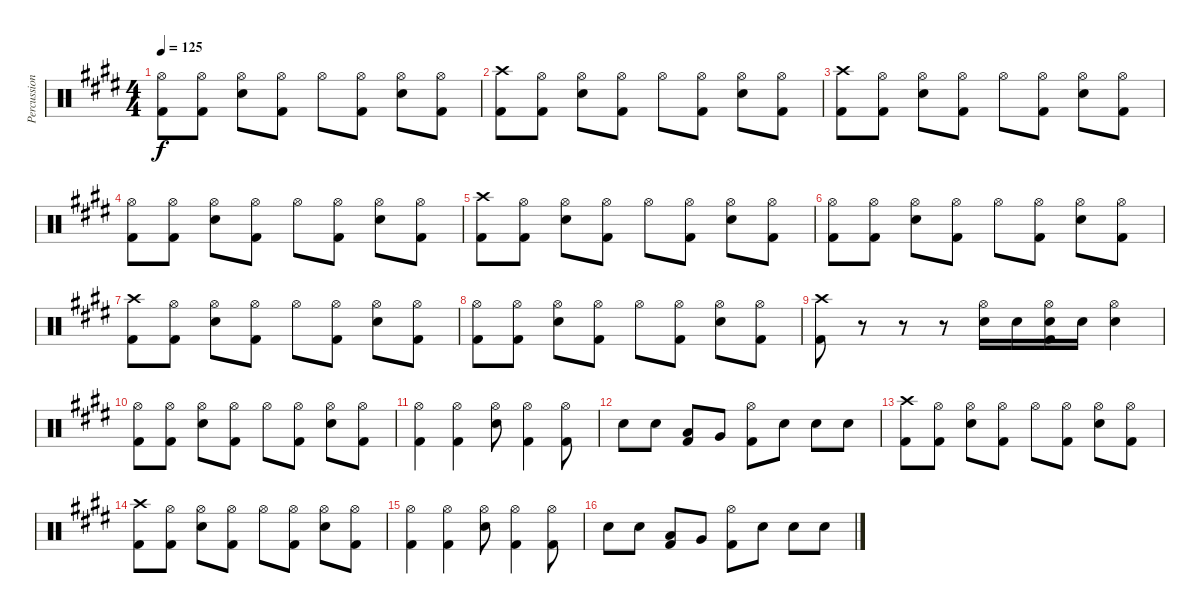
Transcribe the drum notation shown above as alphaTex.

\track ("Percussion" "Percussion") {instrument percussion}
\staff {score}
\articulation defaults
\ts (4 4)
\tempo 125
\clef neutral
\ks e
("Hi-Hat (open)" "Kick (hit) 2").8{dy f} ("Hi-Hat (open)" "Kick (hit) 2").8 ("Hi-Hat (open)" "Electric Snare (hit)").8 ("Hi-Hat (open)" "Kick (hit) 2").8 "Hi-Hat (open)".8 ("Hi-Hat (open)" "Kick (hit) 2").8 ("Hi-Hat (open)" "Electric Snare (hit)").8 ("Hi-Hat (open)" "Kick (hit) 2").8 |
("Crash high (hit)" "Kick (hit) 2").8 ("Hi-Hat (open)" "Kick (hit) 2").8 ("Hi-Hat (open)" "Electric Snare (hit)").8 ("Hi-Hat (open)" "Kick (hit) 2").8 "Hi-Hat (open)".8 ("Hi-Hat (open)" "Kick (hit) 2").8 ("Hi-Hat (open)" "Electric Snare (hit)").8 ("Hi-Hat (open)" "Kick (hit) 2").8 |
("Crash high (hit)" "Kick (hit) 2").8 ("Hi-Hat (open)" "Kick (hit) 2").8 ("Hi-Hat (open)" "Electric Snare (hit)").8 ("Hi-Hat (open)" "Kick (hit) 2").8 "Hi-Hat (open)".8 ("Hi-Hat (open)" "Kick (hit) 2").8 ("Hi-Hat (open)" "Electric Snare (hit)").8 ("Hi-Hat (open)" "Kick (hit) 2").8 |
("Hi-Hat (open)" "Kick (hit) 2").8 ("Hi-Hat (open)" "Kick (hit) 2").8 ("Hi-Hat (open)" "Electric Snare (hit)").8 ("Hi-Hat (open)" "Kick (hit) 2").8 "Hi-Hat (open)".8 ("Hi-Hat (open)" "Kick (hit) 2").8 ("Hi-Hat (open)" "Electric Snare (hit)").8 ("Hi-Hat (open)" "Kick (hit) 2").8 |
("Crash high (hit)" "Kick (hit) 2").8 ("Hi-Hat (open)" "Kick (hit) 2").8 ("Hi-Hat (open)" "Electric Snare (hit)").8 ("Hi-Hat (open)" "Kick (hit) 2").8 "Hi-Hat (open)".8 ("Hi-Hat (open)" "Kick (hit) 2").8 ("Hi-Hat (open)" "Electric Snare (hit)").8 ("Hi-Hat (open)" "Kick (hit) 2").8 |
("Hi-Hat (open)" "Kick (hit) 2").8 ("Hi-Hat (open)" "Kick (hit) 2").8 ("Hi-Hat (open)" "Electric Snare (hit)").8 ("Hi-Hat (open)" "Kick (hit) 2").8 "Hi-Hat (open)".8 ("Hi-Hat (open)" "Kick (hit) 2").8 ("Hi-Hat (open)" "Electric Snare (hit)").8 ("Hi-Hat (open)" "Kick (hit) 2").8 |
("Crash high (hit)" "Kick (hit) 2").8 ("Hi-Hat (open)" "Kick (hit) 2").8 ("Hi-Hat (open)" "Electric Snare (hit)").8 ("Hi-Hat (open)" "Kick (hit) 2").8 "Hi-Hat (open)".8 ("Hi-Hat (open)" "Kick (hit) 2").8 ("Hi-Hat (open)" "Electric Snare (hit)").8 ("Hi-Hat (open)" "Kick (hit) 2").8 |
("Hi-Hat (open)" "Kick (hit) 2").8 ("Hi-Hat (open)" "Kick (hit) 2").8 ("Hi-Hat (open)" "Electric Snare (hit)").8 ("Hi-Hat (open)" "Kick (hit) 2").8 "Hi-Hat (open)".8 ("Hi-Hat (open)" "Kick (hit) 2").8 ("Hi-Hat (open)" "Electric Snare (hit)").8 ("Hi-Hat (open)" "Kick (hit) 2").8 |
("Crash high (hit)" "Kick (hit) 2").8 r.8 r.8 r.8 ("Hi-Hat (open)" "Electric Snare (hit)").16 "Electric Snare (hit)".16 ("Hi-Hat (open)" "Electric Snare (hit)" "Kick (hit) 2").16 "Electric Snare (hit)".16 ("Hi-Hat (open)" "Electric Snare (hit)").4 |
("Hi-Hat (open)" "Kick (hit) 2").8 ("Hi-Hat (open)" "Kick (hit) 2").8 ("Hi-Hat (open)" "Electric Snare (hit)").8 ("Hi-Hat (open)" "Kick (hit) 2").8 "Hi-Hat (open)".8 ("Hi-Hat (open)" "Kick (hit) 2").8 ("Hi-Hat (open)" "Electric Snare (hit)").8 ("Hi-Hat (open)" "Kick (hit) 2").8 |
("Hi-Hat (open)" "Kick (hit) 2").4 ("Hi-Hat (open)" "Kick (hit) 2").4 ("Hi-Hat (open)" "Electric Snare (hit)").8 ("Hi-Hat (open)" "Kick (hit) 2").4 ("Hi-Hat (open)" "Kick (hit) 2").8 |
"Electric Snare (hit)".8 "Electric Snare (hit)".8 ("Low Tom (hit)" "Kick (hit) 2").8 "Very Low Tom (hit)".8 ("Hi-Hat (open)" "Kick (hit) 2").8 "Electric Snare (hit)".8 "Electric Snare (hit)".8 "Electric Snare (hit)".8 |
("Crash high (hit)" "Kick (hit) 2").8 ("Hi-Hat (open)" "Kick (hit) 2").8 ("Hi-Hat (open)" "Electric Snare (hit)").8 ("Hi-Hat (open)" "Kick (hit) 2").8 "Hi-Hat (open)".8 ("Hi-Hat (open)" "Kick (hit) 2").8 ("Hi-Hat (open)" "Electric Snare (hit)").8 ("Hi-Hat (open)" "Kick (hit) 2").8 |
("Crash high (hit)" "Kick (hit) 2").8 ("Hi-Hat (open)" "Kick (hit) 2").8 ("Hi-Hat (open)" "Electric Snare (hit)").8 ("Hi-Hat (open)" "Kick (hit) 2").8 "Hi-Hat (open)".8 ("Hi-Hat (open)" "Kick (hit) 2").8 ("Hi-Hat (open)" "Electric Snare (hit)").8 ("Hi-Hat (open)" "Kick (hit) 2").8 |
("Hi-Hat (open)" "Kick (hit) 2").4 ("Hi-Hat (open)" "Kick (hit) 2").4 ("Hi-Hat (open)" "Electric Snare (hit)").8 ("Hi-Hat (open)" "Kick (hit) 2").4 ("Hi-Hat (open)" "Kick (hit) 2").8 |
"Electric Snare (hit)".8 "Electric Snare (hit)".8 ("Low Tom (hit)" "Kick (hit) 2").8 "Very Low Tom (hit)".8 ("Hi-Hat (open)" "Kick (hit) 2").8 "Electric Snare (hit)".8 "Electric Snare (hit)".8 "Electric Snare (hit)".8
